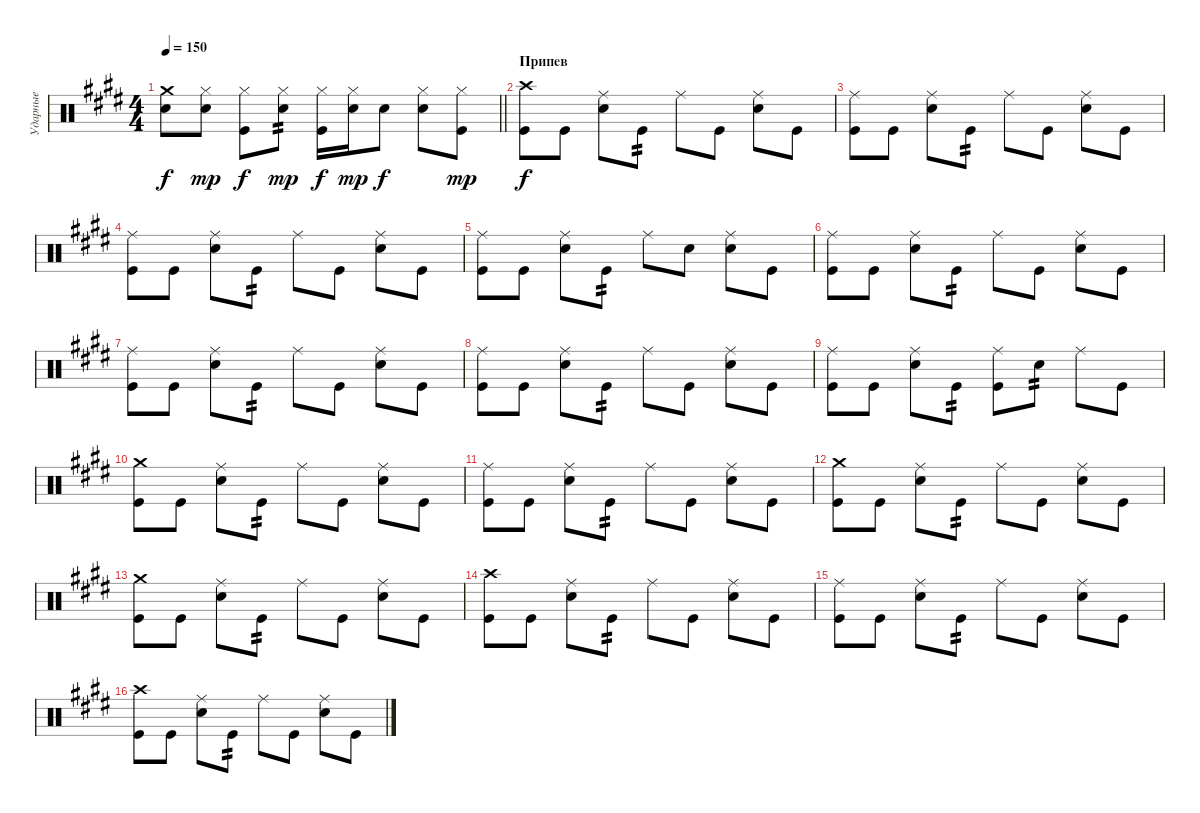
\track ("Ударные" "Ударные") {instrument percussion}
\staff {score}
\articulation defaults
\ts (4 4)
\tempo 150
\clef neutral
\barLineRight lightlight
\ks c#minor
("Crash medium (hit)" "Snare (hit) 2").8{dy f} ("Hi-Hat (closed)" "Snare (hit) 2").8{dy mp} ("Hi-Hat (closed)" "Kick (hit)").8{dy f} ("Hi-Hat (closed)" "Snare (hit) 2").8{tp 2 dy mp} ("Hi-Hat (closed)" "Kick (hit)").16{dy f} ("Hi-Hat (closed)" "Snare (hit) 2").16{dy mp} "Snare (hit) 2".8{dy f} ("Hi-Hat (closed)" "Snare (hit) 2").8 ("Hi-Hat (closed)" "Kick (hit)").8{dy mp} |
\section ("" "Припев")
("Crash high (hit)" "Kick (hit)").8{dy f} "Kick (hit)".8 ("Ride (middle)" "Snare (hit) 2").8 "Kick (hit)".8{tp 2} "Ride (middle)".8 "Kick (hit)".8 ("Ride (middle)" "Snare (hit) 2").8 "Kick (hit)".8 |
("Ride (middle)" "Kick (hit)").8 "Kick (hit)".8 ("Ride (middle)" "Snare (hit) 2").8 "Kick (hit)".8{tp 2} "Ride (middle)".8 "Kick (hit)".8 ("Ride (middle)" "Snare (hit) 2").8 "Kick (hit)".8 |
("Ride (middle)" "Kick (hit)").8 "Kick (hit)".8 ("Ride (middle)" "Snare (hit) 2").8 "Kick (hit)".8{tp 2} "Ride (middle)".8 "Kick (hit)".8 ("Ride (middle)" "Snare (hit) 2").8 "Kick (hit)".8 |
("Ride (middle)" "Kick (hit)").8 "Kick (hit)".8 ("Ride (middle)" "Snare (hit) 2").8 "Kick (hit)".8{tp 2} "Ride (middle)".8 "Snare (hit) 2".8 ("Ride (middle)" "Snare (hit) 2").8 "Kick (hit)".8 |
("Ride (middle)" "Kick (hit)").8 "Kick (hit)".8 ("Ride (middle)" "Snare (hit) 2").8 "Kick (hit)".8{tp 2} "Ride (middle)".8 "Kick (hit)".8 ("Ride (middle)" "Snare (hit) 2").8 "Kick (hit)".8 |
("Ride (middle)" "Kick (hit)").8 "Kick (hit)".8 ("Ride (middle)" "Snare (hit) 2").8 "Kick (hit)".8{tp 2} "Ride (middle)".8 "Kick (hit)".8 ("Ride (middle)" "Snare (hit) 2").8 "Kick (hit)".8 |
("Ride (middle)" "Kick (hit)").8 "Kick (hit)".8 ("Ride (middle)" "Snare (hit) 2").8 "Kick (hit)".8{tp 2} "Ride (middle)".8 "Kick (hit)".8 ("Ride (middle)" "Snare (hit) 2").8 "Kick (hit)".8 |
("Ride (middle)" "Kick (hit)").8 "Kick (hit)".8 ("Ride (middle)" "Snare (hit) 2").8 "Kick (hit)".8{tp 2} ("Ride (middle)" "Kick (hit)").8 "Snare (hit) 2".8{tp 2} "Ride (middle)".8 "Kick (hit)".8 |
("Crash medium (hit)" "Kick (hit)").8 "Kick (hit)".8 ("Ride (middle)" "Snare (hit) 2").8 "Kick (hit)".8{tp 2} "Ride (middle)".8 "Kick (hit)".8 ("Ride (middle)" "Snare (hit) 2").8 "Kick (hit)".8 |
("Ride (middle)" "Kick (hit)").8 "Kick (hit)".8 ("Ride (middle)" "Snare (hit) 2").8 "Kick (hit)".8{tp 2} "Ride (middle)".8 "Kick (hit)".8 ("Ride (middle)" "Snare (hit) 2").8 "Kick (hit)".8 |
("Crash medium (hit)" "Kick (hit)").8 "Kick (hit)".8 ("Ride (middle)" "Snare (hit) 2").8 "Kick (hit)".8{tp 2} "Ride (middle)".8 "Kick (hit)".8 ("Ride (middle)" "Snare (hit) 2").8 "Kick (hit)".8 |
("Crash medium (hit)" "Kick (hit)").8 "Kick (hit)".8 ("Ride (middle)" "Snare (hit) 2").8 "Kick (hit)".8{tp 2} "Ride (middle)".8 "Kick (hit)".8 ("Ride (middle)" "Snare (hit) 2").8 "Kick (hit)".8 |
("Crash high (hit)" "Kick (hit)").8 "Kick (hit)".8 ("Ride (middle)" "Snare (hit) 2").8 "Kick (hit)".8{tp 2} "Ride (middle)".8 "Kick (hit)".8 ("Ride (middle)" "Snare (hit) 2").8 "Kick (hit)".8 |
("Ride (middle)" "Kick (hit)").8 "Kick (hit)".8 ("Ride (middle)" "Snare (hit) 2").8 "Kick (hit)".8{tp 2} "Ride (middle)".8 "Kick (hit)".8 ("Ride (middle)" "Snare (hit) 2").8 "Kick (hit)".8 |
("Crash high (hit)" "Kick (hit)").8 "Kick (hit)".8 ("Ride (middle)" "Snare (hit) 2").8 "Kick (hit)".8{tp 2} "Ride (middle)".8 "Kick (hit)".8 ("Ride (middle)" "Snare (hit) 2").8 "Kick (hit)".8
